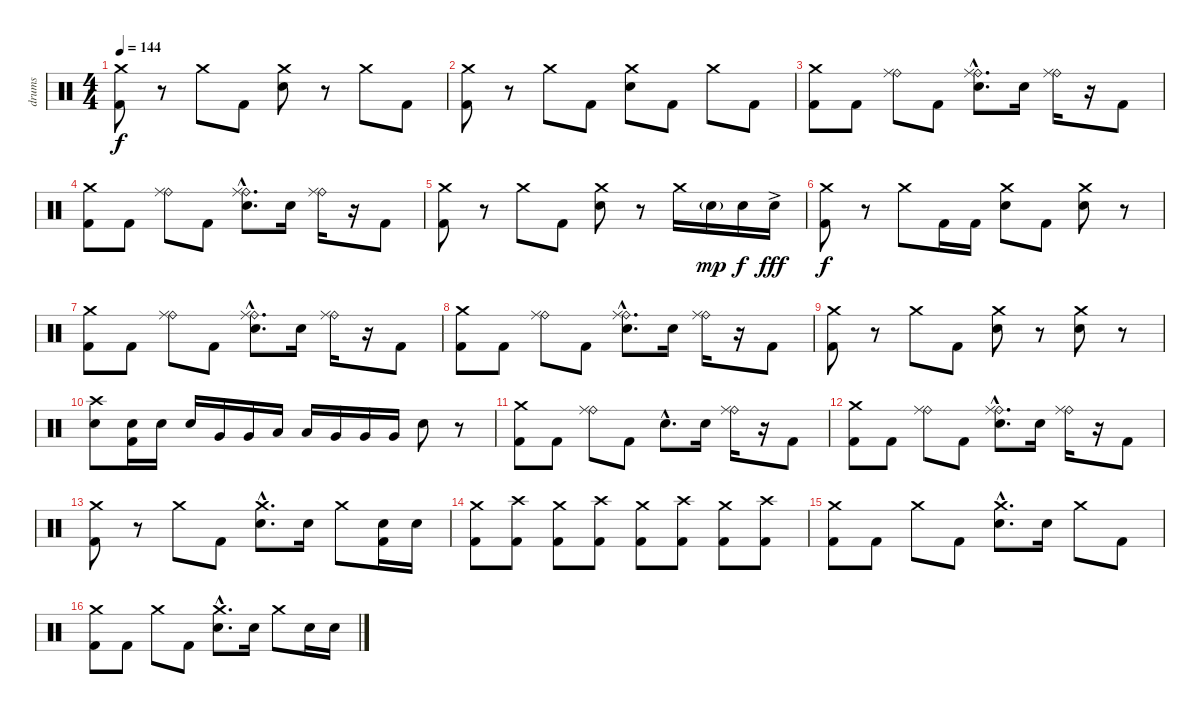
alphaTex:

\track ("drums" "drums") {instrument percussion}
\staff {score}
\articulation defaults
\ts (4 4)
\tempo 144
\clef neutral
\ks c
("Crash medium (hit)" "Kick (hit) 2").8{dy f} r.8 "Crash medium (hit)".8 "Kick (hit) 2".8 ("Crash medium (hit)" "Snare (hit) 2").8 r.8 "Crash medium (hit)".8 "Kick (hit) 2".8 |
("Crash medium (hit)" "Kick (hit) 2").8 r.8 "Crash medium (hit)".8 "Kick (hit) 2".8 ("Crash medium (hit)" "Snare (hit) 2").8 "Kick (hit) 2".8 "Crash medium (hit)".8 "Kick (hit) 2".8 |
("Crash medium (hit)" "Kick (hit) 2").8 "Kick (hit) 2".8 ("Ride (bell)" "Ride (middle)").8 "Kick (hit) 2".8 ("Ride (bell)"{hac} "Ride (middle)"{hac} "Snare (hit) 2"{hac}).8{d} "Snare (hit) 2".16 ("Ride (bell)" "Ride (middle)").16 r.16 "Kick (hit) 2".8 |
("Crash medium (hit)" "Kick (hit) 2").8 "Kick (hit) 2".8 ("Ride (bell)" "Ride (middle)").8 "Kick (hit) 2".8 ("Ride (bell)"{hac} "Ride (middle)"{hac} "Snare (hit) 2"{hac}).8{d} "Snare (hit) 2".16 ("Ride (bell)" "Ride (middle)").16 r.16 "Kick (hit) 2".8 |
("Crash medium (hit)" "Kick (hit) 2").8 r.8 "Crash medium (hit)".8 "Kick (hit) 2".8 ("Crash medium (hit)" "Snare (hit) 2").8 r.8 "Crash medium (hit)".16 "Snare (hit) 2"{g}.16{dy mp} "Snare (hit) 2".16{dy f} "Snare (hit) 2"{ac}.16{dy fff} |
("Crash medium (hit)" "Kick (hit) 2").8{dy f} r.8 "Crash medium (hit)".8 "Kick (hit) 2".16 "Kick (hit) 2".16 ("Crash medium (hit)" "Snare (hit) 2").8 "Kick (hit) 2".8 ("Crash medium (hit)" "Snare (hit) 2").8 r.8 |
("Crash medium (hit)" "Kick (hit) 2").8 "Kick (hit) 2".8 ("Ride (bell)" "Ride (middle)").8 "Kick (hit) 2".8 ("Ride (bell)"{hac} "Ride (middle)"{hac} "Snare (hit) 2"{hac}).8{d} "Snare (hit) 2".16 ("Ride (bell)" "Ride (middle)").16 r.16 "Kick (hit) 2".8 |
("Crash medium (hit)" "Kick (hit) 2").8 "Kick (hit) 2".8 ("Ride (bell)" "Ride (middle)").8 "Kick (hit) 2".8 ("Ride (bell)"{hac} "Ride (middle)"{hac} "Snare (hit) 2"{hac}).8{d} "Snare (hit) 2".16 ("Ride (bell)" "Ride (middle)").16 r.16 "Kick (hit) 2".8 |
("Crash medium (hit)" "Kick (hit) 2").8 r.8 "Crash medium (hit)".8 "Kick (hit) 2".8 ("Crash medium (hit)" "Snare (hit) 2").8 r.8 ("Crash medium (hit)" "Snare (hit) 2").8 r.8 |
("Crash high (hit)" "Snare (hit) 2").8 ("Snare (hit) 2" "Kick (hit) 2").16 "Snare (hit) 2".16 "Snare (hit) 2".16 "Very Low Tom (hit)".16 "Very Low Tom (hit)".16 "Low Tom (hit)".16 "Low Tom (hit)".16 "Very Low Tom (hit)".16 "Very Low Tom (hit)".16 "Very Low Tom (hit)".16 "Snare (hit) 2".8 r.8 |
("Crash medium (hit)" "Kick (hit) 2").8 "Kick (hit) 2".8 ("Ride (bell)" "Ride (middle)").8 "Kick (hit) 2".8 "Snare (hit) 2"{hac}.8{d} "Snare (hit) 2".16 ("Ride (bell)" "Ride (middle)").16 r.16 "Kick (hit) 2".8 |
("Crash medium (hit)" "Kick (hit) 2").8 "Kick (hit) 2".8 ("Ride (bell)" "Ride (middle)").8 "Kick (hit) 2".8 ("Ride (bell)"{hac} "Ride (middle)"{hac} "Snare (hit) 2"{hac}).8{d} "Snare (hit) 2".16 ("Ride (bell)" "Ride (middle)").16 r.16 "Kick (hit) 2".8 |
("Crash medium (hit)" "Kick (hit) 2").8 r.8 "Crash medium (hit)".8 "Kick (hit) 2".8 ("Crash medium (hit)"{hac} "Snare (hit) 2"{hac}).8{d} "Snare (hit) 2".16 "Crash medium (hit)".8 ("Snare (hit) 2" "Kick (hit) 2").16 "Snare (hit) 2".16 |
("Crash medium (hit)" "Kick (hit) 2").8 ("Crash high (hit)" "Kick (hit) 2").8 ("Crash medium (hit)" "Kick (hit) 2").8 ("Crash high (hit)" "Kick (hit) 2").8 ("Crash medium (hit)" "Kick (hit) 2").8 ("Crash high (hit)" "Kick (hit) 2").8 ("Crash medium (hit)" "Kick (hit) 2").8 ("Crash high (hit)" "Kick (hit) 2").8 |
("Crash medium (hit)" "Kick (hit) 2").8 "Kick (hit) 2".8 "Crash medium (hit)".8 "Kick (hit) 2".8 ("Crash medium (hit)"{hac} "Snare (hit) 2"{hac}).8{d} "Snare (hit) 2".16 "Crash medium (hit)".8 "Kick (hit) 2".8 |
("Crash medium (hit)" "Kick (hit) 2").8 "Kick (hit) 2".8 "Crash medium (hit)".8 "Kick (hit) 2".8 ("Crash medium (hit)"{hac} "Snare (hit) 2"{hac}).8{d} "Snare (hit) 2".16 "Crash medium (hit)".8 "Snare (hit) 2".16 "Snare (hit) 2".16
